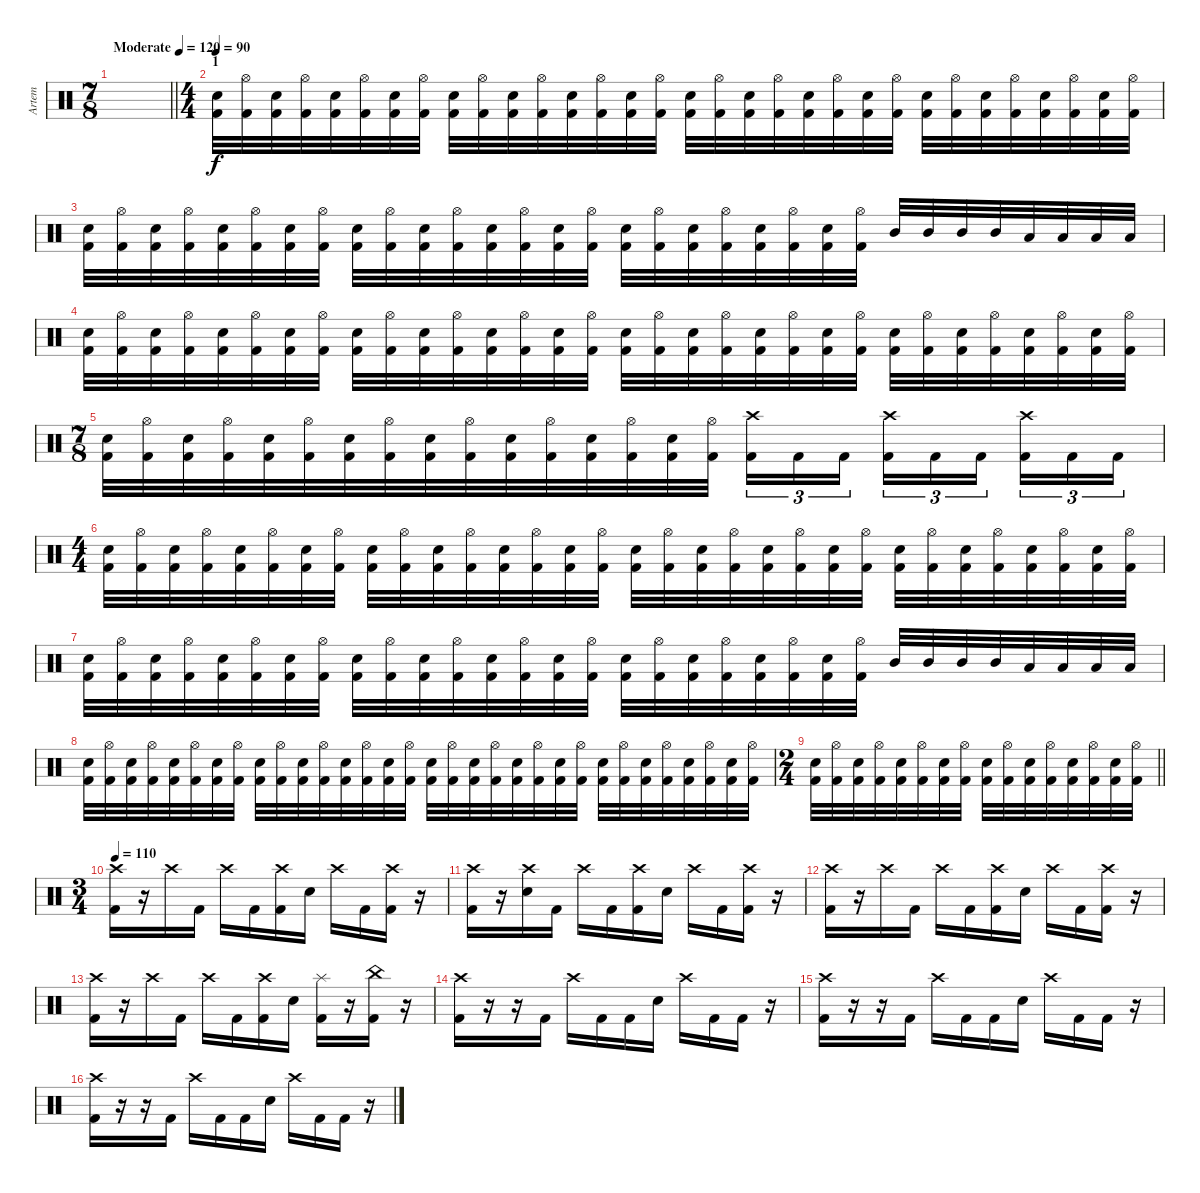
\track ("Artem" "Artem") {instrument percussion}
\staff {score}
\articulation defaults
\ts (7 8)
\tempo (120 "Moderate")
\clef neutral
\barLineRight lightlight
\ks c
|
\ts (4 4)
\section ("" "1")
\tempo 90
("Kick (hit) 2" "Snare (hit) 2").32 ("Kick (hit) 2" "Hi-Hat (open)").32 ("Kick (hit) 2" "Snare (hit) 2").32 ("Kick (hit) 2" "Hi-Hat (open)").32 ("Kick (hit) 2" "Snare (hit) 2").32 ("Kick (hit) 2" "Hi-Hat (open)").32 ("Kick (hit) 2" "Snare (hit) 2").32 ("Kick (hit) 2" "Hi-Hat (open)").32 ("Kick (hit) 2" "Snare (hit) 2").32 ("Kick (hit) 2" "Hi-Hat (open)").32 ("Kick (hit) 2" "Snare (hit) 2").32 ("Kick (hit) 2" "Hi-Hat (open)").32 ("Kick (hit) 2" "Snare (hit) 2").32 ("Kick (hit) 2" "Hi-Hat (open)").32 ("Kick (hit) 2" "Snare (hit) 2").32 ("Kick (hit) 2" "Hi-Hat (open)").32 ("Kick (hit) 2" "Snare (hit) 2").32 ("Kick (hit) 2" "Hi-Hat (open)").32 ("Kick (hit) 2" "Snare (hit) 2").32 ("Kick (hit) 2" "Hi-Hat (open)").32 ("Kick (hit) 2" "Snare (hit) 2").32 ("Kick (hit) 2" "Hi-Hat (open)").32 ("Kick (hit) 2" "Snare (hit) 2").32 ("Kick (hit) 2" "Hi-Hat (open)").32 ("Kick (hit) 2" "Snare (hit) 2").32 ("Kick (hit) 2" "Hi-Hat (open)").32 ("Kick (hit) 2" "Snare (hit) 2").32 ("Kick (hit) 2" "Hi-Hat (open)").32 ("Kick (hit) 2" "Snare (hit) 2").32 ("Kick (hit) 2" "Hi-Hat (open)").32 ("Kick (hit) 2" "Snare (hit) 2").32 ("Kick (hit) 2" "Hi-Hat (open)").32 |
("Kick (hit) 2" "Snare (hit) 2").32 ("Kick (hit) 2" "Hi-Hat (open)").32 ("Kick (hit) 2" "Snare (hit) 2").32 ("Kick (hit) 2" "Hi-Hat (open)").32 ("Kick (hit) 2" "Snare (hit) 2").32 ("Kick (hit) 2" "Hi-Hat (open)").32 ("Kick (hit) 2" "Snare (hit) 2").32 ("Kick (hit) 2" "Hi-Hat (open)").32 ("Kick (hit) 2" "Snare (hit) 2").32 ("Kick (hit) 2" "Hi-Hat (open)").32 ("Kick (hit) 2" "Snare (hit) 2").32 ("Kick (hit) 2" "Hi-Hat (open)").32 ("Kick (hit) 2" "Snare (hit) 2").32 ("Kick (hit) 2" "Hi-Hat (open)").32 ("Kick (hit) 2" "Snare (hit) 2").32 ("Kick (hit) 2" "Hi-Hat (open)").32 ("Kick (hit) 2" "Snare (hit) 2").32 ("Kick (hit) 2" "Hi-Hat (open)").32 ("Kick (hit) 2" "Snare (hit) 2").32 ("Kick (hit) 2" "Hi-Hat (open)").32 ("Kick (hit) 2" "Snare (hit) 2").32 ("Kick (hit) 2" "Hi-Hat (open)").32 ("Kick (hit) 2" "Snare (hit) 2").32 ("Kick (hit) 2" "Hi-Hat (open)").32 "Mid Tom (hit)".32 "Mid Tom (hit)".32 "Mid Tom (hit)".32 "Mid Tom (hit)".32 "Low Tom (hit)".32 "Low Tom (hit)".32 "Low Tom (hit)".32 "Low Tom (hit)".32 |
("Kick (hit) 2" "Snare (hit) 2").32 ("Kick (hit) 2" "Hi-Hat (open)").32 ("Kick (hit) 2" "Snare (hit) 2").32 ("Kick (hit) 2" "Hi-Hat (open)").32 ("Kick (hit) 2" "Snare (hit) 2").32 ("Kick (hit) 2" "Hi-Hat (open)").32 ("Kick (hit) 2" "Snare (hit) 2").32 ("Kick (hit) 2" "Hi-Hat (open)").32 ("Kick (hit) 2" "Snare (hit) 2").32 ("Kick (hit) 2" "Hi-Hat (open)").32 ("Kick (hit) 2" "Snare (hit) 2").32 ("Kick (hit) 2" "Hi-Hat (open)").32 ("Kick (hit) 2" "Snare (hit) 2").32 ("Kick (hit) 2" "Hi-Hat (open)").32 ("Kick (hit) 2" "Snare (hit) 2").32 ("Kick (hit) 2" "Hi-Hat (open)").32 ("Kick (hit) 2" "Snare (hit) 2").32 ("Kick (hit) 2" "Hi-Hat (open)").32 ("Kick (hit) 2" "Snare (hit) 2").32 ("Kick (hit) 2" "Hi-Hat (open)").32 ("Kick (hit) 2" "Snare (hit) 2").32 ("Kick (hit) 2" "Hi-Hat (open)").32 ("Kick (hit) 2" "Snare (hit) 2").32 ("Kick (hit) 2" "Hi-Hat (open)").32 ("Kick (hit) 2" "Snare (hit) 2").32 ("Kick (hit) 2" "Hi-Hat (open)").32 ("Kick (hit) 2" "Snare (hit) 2").32 ("Kick (hit) 2" "Hi-Hat (open)").32 ("Kick (hit) 2" "Snare (hit) 2").32 ("Kick (hit) 2" "Hi-Hat (open)").32 ("Kick (hit) 2" "Snare (hit) 2").32 ("Kick (hit) 2" "Hi-Hat (open)").32 |
\ts (7 8)
("Kick (hit) 2" "Snare (hit) 2").32 ("Kick (hit) 2" "Hi-Hat (open)").32 ("Kick (hit) 2" "Snare (hit) 2").32 ("Kick (hit) 2" "Hi-Hat (open)").32 ("Kick (hit) 2" "Snare (hit) 2").32 ("Kick (hit) 2" "Hi-Hat (open)").32 ("Kick (hit) 2" "Snare (hit) 2").32 ("Kick (hit) 2" "Hi-Hat (open)").32 ("Kick (hit) 2" "Snare (hit) 2").32 ("Kick (hit) 2" "Hi-Hat (open)").32 ("Kick (hit) 2" "Snare (hit) 2").32 ("Kick (hit) 2" "Hi-Hat (open)").32 ("Kick (hit) 2" "Snare (hit) 2").32 ("Kick (hit) 2" "Hi-Hat (open)").32 ("Kick (hit) 2" "Snare (hit) 2").32 ("Kick (hit) 2" "Hi-Hat (open)").32 ("Kick (hit) 2" "Crash high (hit)").16{tu (3 2)} "Kick (hit) 2".16{tu (3 2)} "Kick (hit) 2".16{tu (3 2)} ("Kick (hit) 2" "Crash high (hit)").16{tu (3 2)} "Kick (hit) 2".16{tu (3 2)} "Kick (hit) 2".16{tu (3 2)} ("Kick (hit) 2" "Crash high (hit)").16{tu (3 2)} "Kick (hit) 2".16{tu (3 2)} "Kick (hit) 2".16{tu (3 2)} |
\ts (4 4)
("Kick (hit) 2" "Snare (hit) 2").32 ("Kick (hit) 2" "Hi-Hat (open)").32 ("Kick (hit) 2" "Snare (hit) 2").32 ("Kick (hit) 2" "Hi-Hat (open)").32 ("Kick (hit) 2" "Snare (hit) 2").32 ("Kick (hit) 2" "Hi-Hat (open)").32 ("Kick (hit) 2" "Snare (hit) 2").32 ("Kick (hit) 2" "Hi-Hat (open)").32 ("Kick (hit) 2" "Snare (hit) 2").32 ("Kick (hit) 2" "Hi-Hat (open)").32 ("Kick (hit) 2" "Snare (hit) 2").32 ("Kick (hit) 2" "Hi-Hat (open)").32 ("Kick (hit) 2" "Snare (hit) 2").32 ("Kick (hit) 2" "Hi-Hat (open)").32 ("Kick (hit) 2" "Snare (hit) 2").32 ("Kick (hit) 2" "Hi-Hat (open)").32 ("Kick (hit) 2" "Snare (hit) 2").32 ("Kick (hit) 2" "Hi-Hat (open)").32 ("Kick (hit) 2" "Snare (hit) 2").32 ("Kick (hit) 2" "Hi-Hat (open)").32 ("Kick (hit) 2" "Snare (hit) 2").32 ("Kick (hit) 2" "Hi-Hat (open)").32 ("Kick (hit) 2" "Snare (hit) 2").32 ("Kick (hit) 2" "Hi-Hat (open)").32 ("Kick (hit) 2" "Snare (hit) 2").32 ("Kick (hit) 2" "Hi-Hat (open)").32 ("Kick (hit) 2" "Snare (hit) 2").32 ("Kick (hit) 2" "Hi-Hat (open)").32 ("Kick (hit) 2" "Snare (hit) 2").32 ("Kick (hit) 2" "Hi-Hat (open)").32 ("Kick (hit) 2" "Snare (hit) 2").32 ("Kick (hit) 2" "Hi-Hat (open)").32 |
("Kick (hit) 2" "Snare (hit) 2").32 ("Kick (hit) 2" "Hi-Hat (open)").32 ("Kick (hit) 2" "Snare (hit) 2").32 ("Kick (hit) 2" "Hi-Hat (open)").32 ("Kick (hit) 2" "Snare (hit) 2").32 ("Kick (hit) 2" "Hi-Hat (open)").32 ("Kick (hit) 2" "Snare (hit) 2").32 ("Kick (hit) 2" "Hi-Hat (open)").32 ("Kick (hit) 2" "Snare (hit) 2").32 ("Kick (hit) 2" "Hi-Hat (open)").32 ("Kick (hit) 2" "Snare (hit) 2").32 ("Kick (hit) 2" "Hi-Hat (open)").32 ("Kick (hit) 2" "Snare (hit) 2").32 ("Kick (hit) 2" "Hi-Hat (open)").32 ("Kick (hit) 2" "Snare (hit) 2").32 ("Kick (hit) 2" "Hi-Hat (open)").32 ("Kick (hit) 2" "Snare (hit) 2").32 ("Kick (hit) 2" "Hi-Hat (open)").32 ("Kick (hit) 2" "Snare (hit) 2").32 ("Kick (hit) 2" "Hi-Hat (open)").32 ("Kick (hit) 2" "Snare (hit) 2").32 ("Kick (hit) 2" "Hi-Hat (open)").32 ("Kick (hit) 2" "Snare (hit) 2").32 ("Kick (hit) 2" "Hi-Hat (open)").32 "Mid Tom (hit)".32 "Mid Tom (hit)".32 "Mid Tom (hit)".32 "Mid Tom (hit)".32 "Low Tom (hit)".32 "Low Tom (hit)".32 "Low Tom (hit)".32 "Low Tom (hit)".32 |
("Kick (hit) 2" "Snare (hit) 2").32 ("Kick (hit) 2" "Hi-Hat (open)").32 ("Kick (hit) 2" "Snare (hit) 2").32 ("Kick (hit) 2" "Hi-Hat (open)").32 ("Kick (hit) 2" "Snare (hit) 2").32 ("Kick (hit) 2" "Hi-Hat (open)").32 ("Kick (hit) 2" "Snare (hit) 2").32 ("Kick (hit) 2" "Hi-Hat (open)").32 ("Kick (hit) 2" "Snare (hit) 2").32 ("Kick (hit) 2" "Hi-Hat (open)").32 ("Kick (hit) 2" "Snare (hit) 2").32 ("Kick (hit) 2" "Hi-Hat (open)").32 ("Kick (hit) 2" "Snare (hit) 2").32 ("Kick (hit) 2" "Hi-Hat (open)").32 ("Kick (hit) 2" "Snare (hit) 2").32 ("Kick (hit) 2" "Hi-Hat (open)").32 ("Kick (hit) 2" "Snare (hit) 2").32 ("Kick (hit) 2" "Hi-Hat (open)").32 ("Kick (hit) 2" "Snare (hit) 2").32 ("Kick (hit) 2" "Hi-Hat (open)").32 ("Kick (hit) 2" "Snare (hit) 2").32 ("Kick (hit) 2" "Hi-Hat (open)").32 ("Kick (hit) 2" "Snare (hit) 2").32 ("Kick (hit) 2" "Hi-Hat (open)").32 ("Kick (hit) 2" "Snare (hit) 2").32 ("Kick (hit) 2" "Hi-Hat (open)").32 ("Kick (hit) 2" "Snare (hit) 2").32 ("Kick (hit) 2" "Hi-Hat (open)").32 ("Kick (hit) 2" "Snare (hit) 2").32 ("Kick (hit) 2" "Hi-Hat (open)").32 ("Kick (hit) 2" "Snare (hit) 2").32 ("Kick (hit) 2" "Hi-Hat (open)").32 |
\ts (2 4)
\barLineRight lightlight
("Kick (hit) 2" "Snare (hit) 2").32 ("Kick (hit) 2" "Hi-Hat (open)").32 ("Kick (hit) 2" "Snare (hit) 2").32 ("Kick (hit) 2" "Hi-Hat (open)").32 ("Kick (hit) 2" "Snare (hit) 2").32 ("Kick (hit) 2" "Hi-Hat (open)").32 ("Kick (hit) 2" "Snare (hit) 2").32 ("Kick (hit) 2" "Hi-Hat (open)").32 ("Kick (hit) 2" "Snare (hit) 2").32 ("Kick (hit) 2" "Hi-Hat (open)").32 ("Kick (hit) 2" "Snare (hit) 2").32 ("Kick (hit) 2" "Hi-Hat (open)").32 ("Kick (hit) 2" "Snare (hit) 2").32 ("Kick (hit) 2" "Hi-Hat (open)").32 ("Kick (hit) 2" "Snare (hit) 2").32 ("Kick (hit) 2" "Hi-Hat (open)").32 |
\ts (3 4)
\tempo 110
("Kick (hit) 2" "Crash high (hit)").16 r.16 "Crash high (hit)".16 "Kick (hit) 2".16 "Crash high (hit)".16 "Kick (hit) 2".16 ("Kick (hit) 2" "Crash high (hit)").16 "Snare (hit) 2".16 "Crash high (hit)".16 "Kick (hit) 2".16 ("Kick (hit) 2" "Crash high (hit)").16 r.16 |
("Kick (hit) 2" "Crash high (hit)").16 r.16 ("Crash high (hit)" "Snare (hit) 2").16 "Kick (hit) 2".16 "Crash high (hit)".16 "Kick (hit) 2".16 ("Kick (hit) 2" "Crash high (hit)").16 "Snare (hit) 2".16 "Crash high (hit)".16 "Kick (hit) 2".16 ("Kick (hit) 2" "Crash high (hit)").16 r.16 |
("Kick (hit) 2" "Crash high (hit)").16 r.16 "Crash high (hit)".16 "Kick (hit) 2".16 "Crash high (hit)".16 "Kick (hit) 2".16 ("Kick (hit) 2" "Crash high (hit)").16 "Snare (hit) 2".16 "Crash high (hit)".16 "Kick (hit) 2".16 ("Kick (hit) 2" "Crash high (hit)").16 r.16 |
("Kick (hit) 2" "Crash high (hit)").16 r.16 "Crash high (hit)".16 "Kick (hit) 2".16 "Crash high (hit)".16 "Kick (hit) 2".16 ("Kick (hit) 2" "Crash high (hit)").16 "Snare (hit) 2".16 ("Kick (hit) 2" "Splash (hit)").16 r.16 ("Kick (hit) 2" "China (hit)").16 r.16 |
("Kick (hit) 2" "Crash high (hit)").16 r.16 r.16 "Kick (hit) 2".16 "Crash high (hit)".16 "Kick (hit) 2".16 "Kick (hit) 2".16 "Snare (hit) 2".16 "Crash high (hit)".16 "Kick (hit) 2".16 "Kick (hit) 2".16 r.16 |
("Kick (hit) 2" "Crash high (hit)").16 r.16 r.16 "Kick (hit) 2".16 "Crash high (hit)".16 "Kick (hit) 2".16 "Kick (hit) 2".16 "Snare (hit) 2".16 "Crash high (hit)".16 "Kick (hit) 2".16 "Kick (hit) 2".16 r.16 |
("Kick (hit) 2" "Crash high (hit)").16 r.16 r.16 "Kick (hit) 2".16 "Crash high (hit)".16 "Kick (hit) 2".16 "Kick (hit) 2".16 "Snare (hit) 2".16 "Crash high (hit)".16 "Kick (hit) 2".16 "Kick (hit) 2".16 r.16
